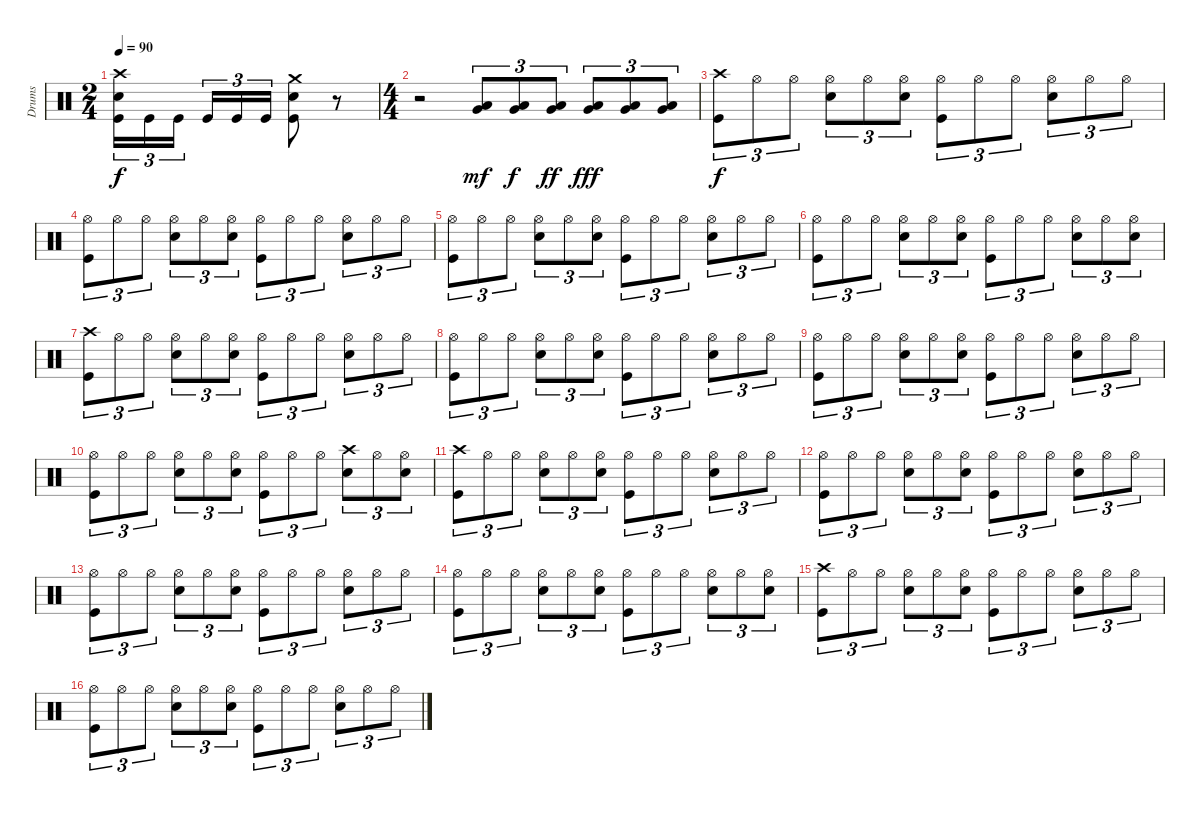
\track ("Drums" "Drums") {instrument percussion}
\staff {score}
\articulation defaults
\ts (2 4)
\tempo 90
\clef neutral
\ks c
("Crash high (hit)" "Snare (hit) 2" "Kick (hit)").16{tu (3 2) dy f} "Kick (hit)".16{tu (3 2)} "Kick (hit)".16{tu (3 2)} "Kick (hit)".16{tu (3 2)} "Kick (hit)".16{tu (3 2)} "Kick (hit)".16{tu (3 2)} ("Crash medium (hit)" "Snare (hit) 2" "Kick (hit)").8 r.8 |
\ts (4 4)
r.2 ("Very Low Tom (hit)" "Low Floor Tom (hit)").8{tu (3 2) dy mf} ("Very Low Tom (hit)" "Low Floor Tom (hit)").8{tu (3 2) dy f} ("Very Low Tom (hit)" "Low Floor Tom (hit)").8{tu (3 2) dy ff} ("Very Low Tom (hit)" "Low Floor Tom (hit)").8{tu (3 2) dy fff} ("Very Low Tom (hit)" "Low Floor Tom (hit)").8{tu (3 2)} ("Very Low Tom (hit)" "Low Floor Tom (hit)").8{tu (3 2)} |
("Crash high (hit)" "Kick (hit)").8{tu (3 2) dy f} "Hi-Hat (open)".8{tu (3 2)} "Hi-Hat (open)".8{tu (3 2)} ("Hi-Hat (open)" "Snare (hit) 2").8{tu (3 2)} "Hi-Hat (open)".8{tu (3 2)} ("Hi-Hat (open)" "Snare (hit) 2").8{tu (3 2)} ("Hi-Hat (open)" "Kick (hit)").8{tu (3 2)} "Hi-Hat (open)".8{tu (3 2)} "Hi-Hat (open)".8{tu (3 2)} ("Hi-Hat (open)" "Snare (hit) 2").8{tu (3 2)} "Hi-Hat (open)".8{tu (3 2)} "Hi-Hat (open)".8{tu (3 2)} |
("Hi-Hat (open)" "Kick (hit)").8{tu (3 2)} "Hi-Hat (open)".8{tu (3 2)} "Hi-Hat (open)".8{tu (3 2)} ("Hi-Hat (open)" "Snare (hit) 2").8{tu (3 2)} "Hi-Hat (open)".8{tu (3 2)} ("Hi-Hat (open)" "Snare (hit) 2").8{tu (3 2)} ("Hi-Hat (open)" "Kick (hit)").8{tu (3 2)} "Hi-Hat (open)".8{tu (3 2)} "Hi-Hat (open)".8{tu (3 2)} ("Hi-Hat (open)" "Snare (hit) 2").8{tu (3 2)} "Hi-Hat (open)".8{tu (3 2)} "Hi-Hat (open)".8{tu (3 2)} |
("Hi-Hat (open)" "Kick (hit)").8{tu (3 2)} "Hi-Hat (open)".8{tu (3 2)} "Hi-Hat (open)".8{tu (3 2)} ("Hi-Hat (open)" "Snare (hit) 2").8{tu (3 2)} "Hi-Hat (open)".8{tu (3 2)} ("Hi-Hat (open)" "Snare (hit) 2").8{tu (3 2)} ("Hi-Hat (open)" "Kick (hit)").8{tu (3 2)} "Hi-Hat (open)".8{tu (3 2)} "Hi-Hat (open)".8{tu (3 2)} ("Hi-Hat (open)" "Snare (hit) 2").8{tu (3 2)} "Hi-Hat (open)".8{tu (3 2)} "Hi-Hat (open)".8{tu (3 2)} |
("Hi-Hat (open)" "Kick (hit)").8{tu (3 2)} "Hi-Hat (open)".8{tu (3 2)} "Hi-Hat (open)".8{tu (3 2)} ("Hi-Hat (open)" "Snare (hit) 2").8{tu (3 2)} "Hi-Hat (open)".8{tu (3 2)} ("Hi-Hat (open)" "Snare (hit) 2").8{tu (3 2)} ("Hi-Hat (open)" "Kick (hit)").8{tu (3 2)} "Hi-Hat (open)".8{tu (3 2)} "Hi-Hat (open)".8{tu (3 2)} ("Hi-Hat (open)" "Snare (hit) 2").8{tu (3 2)} "Hi-Hat (open)".8{tu (3 2)} ("Hi-Hat (open)" "Snare (hit) 2").8{tu (3 2)} |
("Crash high (hit)" "Kick (hit)").8{tu (3 2)} "Hi-Hat (open)".8{tu (3 2)} "Hi-Hat (open)".8{tu (3 2)} ("Hi-Hat (open)" "Snare (hit) 2").8{tu (3 2)} "Hi-Hat (open)".8{tu (3 2)} ("Hi-Hat (open)" "Snare (hit) 2").8{tu (3 2)} ("Hi-Hat (open)" "Kick (hit)").8{tu (3 2)} "Hi-Hat (open)".8{tu (3 2)} "Hi-Hat (open)".8{tu (3 2)} ("Hi-Hat (open)" "Snare (hit) 2").8{tu (3 2)} "Hi-Hat (open)".8{tu (3 2)} "Hi-Hat (open)".8{tu (3 2)} |
("Hi-Hat (open)" "Kick (hit)").8{tu (3 2)} "Hi-Hat (open)".8{tu (3 2)} "Hi-Hat (open)".8{tu (3 2)} ("Hi-Hat (open)" "Snare (hit) 2").8{tu (3 2)} "Hi-Hat (open)".8{tu (3 2)} ("Hi-Hat (open)" "Snare (hit) 2").8{tu (3 2)} ("Hi-Hat (open)" "Kick (hit)").8{tu (3 2)} "Hi-Hat (open)".8{tu (3 2)} "Hi-Hat (open)".8{tu (3 2)} ("Hi-Hat (open)" "Snare (hit) 2").8{tu (3 2)} "Hi-Hat (open)".8{tu (3 2)} "Hi-Hat (open)".8{tu (3 2)} |
("Hi-Hat (open)" "Kick (hit)").8{tu (3 2)} "Hi-Hat (open)".8{tu (3 2)} "Hi-Hat (open)".8{tu (3 2)} ("Hi-Hat (open)" "Snare (hit) 2").8{tu (3 2)} "Hi-Hat (open)".8{tu (3 2)} ("Hi-Hat (open)" "Snare (hit) 2").8{tu (3 2)} ("Hi-Hat (open)" "Kick (hit)").8{tu (3 2)} "Hi-Hat (open)".8{tu (3 2)} "Hi-Hat (open)".8{tu (3 2)} ("Hi-Hat (open)" "Snare (hit) 2").8{tu (3 2)} "Hi-Hat (open)".8{tu (3 2)} "Hi-Hat (open)".8{tu (3 2)} |
("Hi-Hat (open)" "Kick (hit)").8{tu (3 2)} "Hi-Hat (open)".8{tu (3 2)} "Hi-Hat (open)".8{tu (3 2)} ("Hi-Hat (open)" "Snare (hit) 2").8{tu (3 2)} "Hi-Hat (open)".8{tu (3 2)} ("Hi-Hat (open)" "Snare (hit) 2").8{tu (3 2)} ("Hi-Hat (open)" "Kick (hit)").8{tu (3 2)} "Hi-Hat (open)".8{tu (3 2)} "Hi-Hat (open)".8{tu (3 2)} ("Crash high (hit)" "Snare (hit) 2").8{tu (3 2)} "Hi-Hat (open)".8{tu (3 2)} ("Hi-Hat (open)" "Snare (hit) 2").8{tu (3 2)} |
("Crash high (hit)" "Kick (hit)").8{tu (3 2)} "Hi-Hat (open)".8{tu (3 2)} "Hi-Hat (open)".8{tu (3 2)} ("Hi-Hat (open)" "Snare (hit) 2").8{tu (3 2)} "Hi-Hat (open)".8{tu (3 2)} ("Hi-Hat (open)" "Snare (hit) 2").8{tu (3 2)} ("Hi-Hat (open)" "Kick (hit)").8{tu (3 2)} "Hi-Hat (open)".8{tu (3 2)} "Hi-Hat (open)".8{tu (3 2)} ("Hi-Hat (open)" "Snare (hit) 2").8{tu (3 2)} "Hi-Hat (open)".8{tu (3 2)} "Hi-Hat (open)".8{tu (3 2)} |
("Hi-Hat (open)" "Kick (hit)").8{tu (3 2)} "Hi-Hat (open)".8{tu (3 2)} "Hi-Hat (open)".8{tu (3 2)} ("Hi-Hat (open)" "Snare (hit) 2").8{tu (3 2)} "Hi-Hat (open)".8{tu (3 2)} ("Hi-Hat (open)" "Snare (hit) 2").8{tu (3 2)} ("Hi-Hat (open)" "Kick (hit)").8{tu (3 2)} "Hi-Hat (open)".8{tu (3 2)} "Hi-Hat (open)".8{tu (3 2)} ("Hi-Hat (open)" "Snare (hit) 2").8{tu (3 2)} "Hi-Hat (open)".8{tu (3 2)} "Hi-Hat (open)".8{tu (3 2)} |
("Hi-Hat (open)" "Kick (hit)").8{tu (3 2)} "Hi-Hat (open)".8{tu (3 2)} "Hi-Hat (open)".8{tu (3 2)} ("Hi-Hat (open)" "Snare (hit) 2").8{tu (3 2)} "Hi-Hat (open)".8{tu (3 2)} ("Hi-Hat (open)" "Snare (hit) 2").8{tu (3 2)} ("Hi-Hat (open)" "Kick (hit)").8{tu (3 2)} "Hi-Hat (open)".8{tu (3 2)} "Hi-Hat (open)".8{tu (3 2)} ("Hi-Hat (open)" "Snare (hit) 2").8{tu (3 2)} "Hi-Hat (open)".8{tu (3 2)} "Hi-Hat (open)".8{tu (3 2)} |
("Hi-Hat (open)" "Kick (hit)").8{tu (3 2)} "Hi-Hat (open)".8{tu (3 2)} "Hi-Hat (open)".8{tu (3 2)} ("Hi-Hat (open)" "Snare (hit) 2").8{tu (3 2)} "Hi-Hat (open)".8{tu (3 2)} ("Hi-Hat (open)" "Snare (hit) 2").8{tu (3 2)} ("Hi-Hat (open)" "Kick (hit)").8{tu (3 2)} "Hi-Hat (open)".8{tu (3 2)} "Hi-Hat (open)".8{tu (3 2)} ("Hi-Hat (open)" "Snare (hit) 2").8{tu (3 2)} "Hi-Hat (open)".8{tu (3 2)} ("Hi-Hat (open)" "Snare (hit) 2").8{tu (3 2)} |
("Crash high (hit)" "Kick (hit)").8{tu (3 2)} "Hi-Hat (open)".8{tu (3 2)} "Hi-Hat (open)".8{tu (3 2)} ("Hi-Hat (open)" "Snare (hit) 2").8{tu (3 2)} "Hi-Hat (open)".8{tu (3 2)} ("Hi-Hat (open)" "Snare (hit) 2").8{tu (3 2)} ("Hi-Hat (open)" "Kick (hit)").8{tu (3 2)} "Hi-Hat (open)".8{tu (3 2)} "Hi-Hat (open)".8{tu (3 2)} ("Hi-Hat (open)" "Snare (hit) 2").8{tu (3 2)} "Hi-Hat (open)".8{tu (3 2)} "Hi-Hat (open)".8{tu (3 2)} |
("Hi-Hat (open)" "Kick (hit)").8{tu (3 2)} "Hi-Hat (open)".8{tu (3 2)} "Hi-Hat (open)".8{tu (3 2)} ("Hi-Hat (open)" "Snare (hit) 2").8{tu (3 2)} "Hi-Hat (open)".8{tu (3 2)} ("Hi-Hat (open)" "Snare (hit) 2").8{tu (3 2)} ("Hi-Hat (open)" "Kick (hit)").8{tu (3 2)} "Hi-Hat (open)".8{tu (3 2)} "Hi-Hat (open)".8{tu (3 2)} ("Hi-Hat (open)" "Snare (hit) 2").8{tu (3 2)} "Hi-Hat (open)".8{tu (3 2)} "Hi-Hat (open)".8{tu (3 2)}
